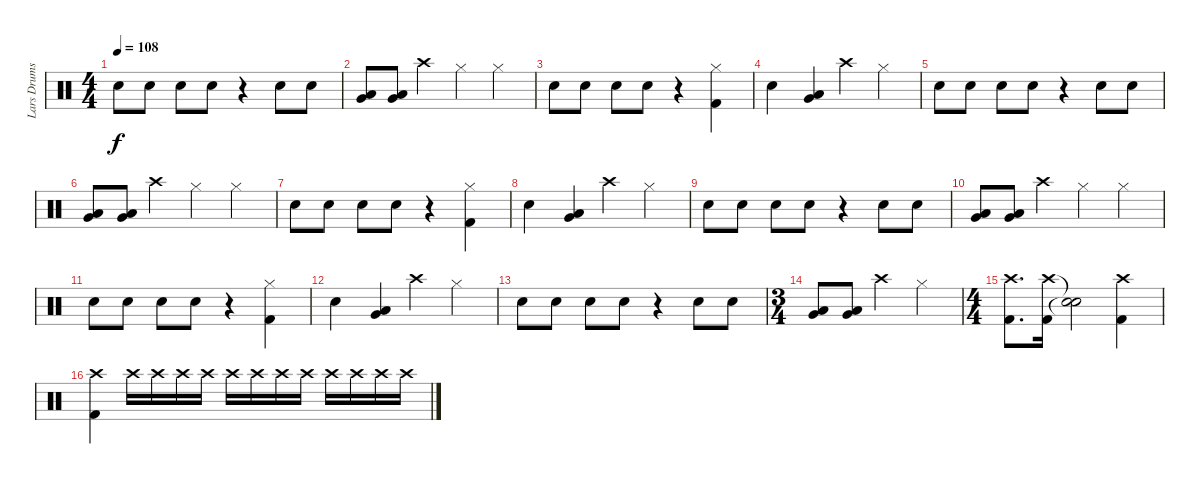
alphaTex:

\track ("Lars Drums" "Lars Drums") {instrument percussion}
\staff {score}
\articulation defaults
\ts (4 4)
\tempo 108
\clef neutral
\ks c "Electric Snare (hit)".8{dy f} "Electric Snare (hit)".8 "Electric Snare (hit)".8 "Electric Snare (hit)".8
r.4 "Electric Snare (hit)".8 "Electric Snare (hit)".8 |
("Very Low Tom (hit)" "Low Floor Tom (hit)").8 ("Very Low Tom (hit)" "Low Floor Tom (hit)").8 "Crash high (hit)".4 "Hi-Hat (closed)".4 "Hi-Hat (closed)".4 |
"Electric Snare (hit)".8 "Electric Snare (hit)".8 "Electric Snare (hit)".8 "Electric Snare (hit)".8 r.4 ("Hi-Hat (closed)" "Kick (hit) 2").4 |
"Electric Snare (hit)".4 ("Low Floor Tom (hit)" "Very Low Tom (hit)").4 "Crash high (hit)".4 "Hi-Hat (closed)".4 |
"Electric Snare (hit)".8 "Electric Snare (hit)".8 "Electric Snare (hit)".8 "Electric Snare (hit)".8 r.4 "Electric Snare (hit)".8 "Electric Snare (hit)".8 |
("Very Low Tom (hit)" "Low Floor Tom (hit)").8 ("Very Low Tom (hit)" "Low Floor Tom (hit)").8 "Crash high (hit)".4 "Hi-Hat (closed)".4 "Hi-Hat (closed)".4 |
"Electric Snare (hit)".8 "Electric Snare (hit)".8 "Electric Snare (hit)".8 "Electric Snare (hit)".8 r.4 ("Hi-Hat (closed)" "Kick (hit) 2").4 |
"Electric Snare (hit)".4 ("Low Floor Tom (hit)" "Very Low Tom (hit)").4 "Crash high (hit)".4 "Hi-Hat (closed)".4 |
"Electric Snare (hit)".8 "Electric Snare (hit)".8 "Electric Snare (hit)".8 "Electric Snare (hit)".8 r.4 "Electric Snare (hit)".8 "Electric Snare (hit)".8 |
("Very Low Tom (hit)" "Low Floor Tom (hit)").8 ("Very Low Tom (hit)" "Low Floor Tom (hit)").8 "Crash high (hit)".4 "Hi-Hat (closed)".4 "Hi-Hat (closed)".4 |
"Electric Snare (hit)".8 "Electric Snare (hit)".8 "Electric Snare (hit)".8 "Electric Snare (hit)".8 r.4 ("Hi-Hat (closed)" "Kick (hit) 2").4 |
"Electric Snare (hit)".4 ("Low Floor Tom (hit)" "Very Low Tom (hit)").4 "Crash high (hit)".4 "Hi-Hat (closed)".4 |
"Electric Snare (hit)".8 "Electric Snare (hit)".8 "Electric Snare (hit)".8 "Electric Snare (hit)".8 r.4 "Electric Snare (hit)".8 "Electric Snare (hit)".8 |
\ts (3 4)
("Very Low Tom (hit)" "Low Floor Tom (hit)").8 ("Very Low Tom (hit)" "Low Floor Tom (hit)").8 "Crash high (hit)".4 "Hi-Hat (closed)".4 |
\ts (4 4)
("Crash high (hit)" "Kick (hit) 2").8{d} ("Crash high (hit)" "Kick (hit) 2").16 ("Snare (hit)"{t} "Snare (hit)"{t}).2 ("Crash high (hit)" "Kick (hit) 2").4 |
("Crash high (hit)" "Kick (hit) 2").4 "Crash high (hit)".16 "Crash high (hit)".16 "Crash high (hit)".16 "Crash high (hit)".16 "Crash high (hit)".16 "Crash high (hit)".16 "Crash high (hit)".16 "Crash high (hit)".16 "Crash high (hit)".16 "Crash high (hit)".16 "Crash high (hit)".16 "Crash high (hit)".16
